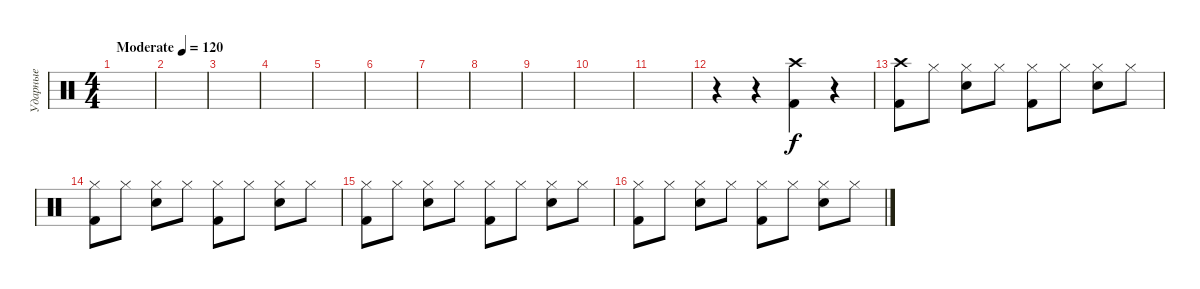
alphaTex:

\track ("Ударные" "Ударные") {instrument percussion}
\staff {score}
\articulation defaults
\ts (4 4)
\tempo (120 "Moderate")
\clef neutral
\ks c
|
|
|
|
|
|
|
|
|
|
|
r.4 r.4 ("Crash high (hit)" "Kick (hit) 2").4 r.4 |
("Crash high (hit)" "Kick (hit) 2").8 "Hi-Hat (closed)".8 ("Hi-Hat (closed)" "Electric Snare (hit)").8 "Hi-Hat (closed)".8 ("Hi-Hat (closed)" "Kick (hit) 2").8 "Hi-Hat (closed)".8 ("Hi-Hat (closed)" "Electric Snare (hit)").8 "Hi-Hat (closed)".8 |
("Hi-Hat (closed)" "Kick (hit) 2").8 "Hi-Hat (closed)".8 ("Hi-Hat (closed)" "Electric Snare (hit)").8 "Hi-Hat (closed)".8 ("Hi-Hat (closed)" "Kick (hit) 2").8 "Hi-Hat (closed)".8 ("Hi-Hat (closed)" "Electric Snare (hit)").8 "Hi-Hat (closed)".8 |
("Hi-Hat (closed)" "Kick (hit) 2").8 "Hi-Hat (closed)".8 ("Hi-Hat (closed)" "Electric Snare (hit)").8 "Hi-Hat (closed)".8 ("Hi-Hat (closed)" "Kick (hit) 2").8 "Hi-Hat (closed)".8 ("Hi-Hat (closed)" "Electric Snare (hit)").8 "Hi-Hat (closed)".8 |
("Hi-Hat (closed)" "Kick (hit) 2").8 "Hi-Hat (closed)".8 ("Hi-Hat (closed)" "Electric Snare (hit)").8 "Hi-Hat (closed)".8 ("Hi-Hat (closed)" "Kick (hit) 2").8 "Hi-Hat (closed)".8 ("Hi-Hat (closed)" "Electric Snare (hit)").8 "Hi-Hat (closed)".8
